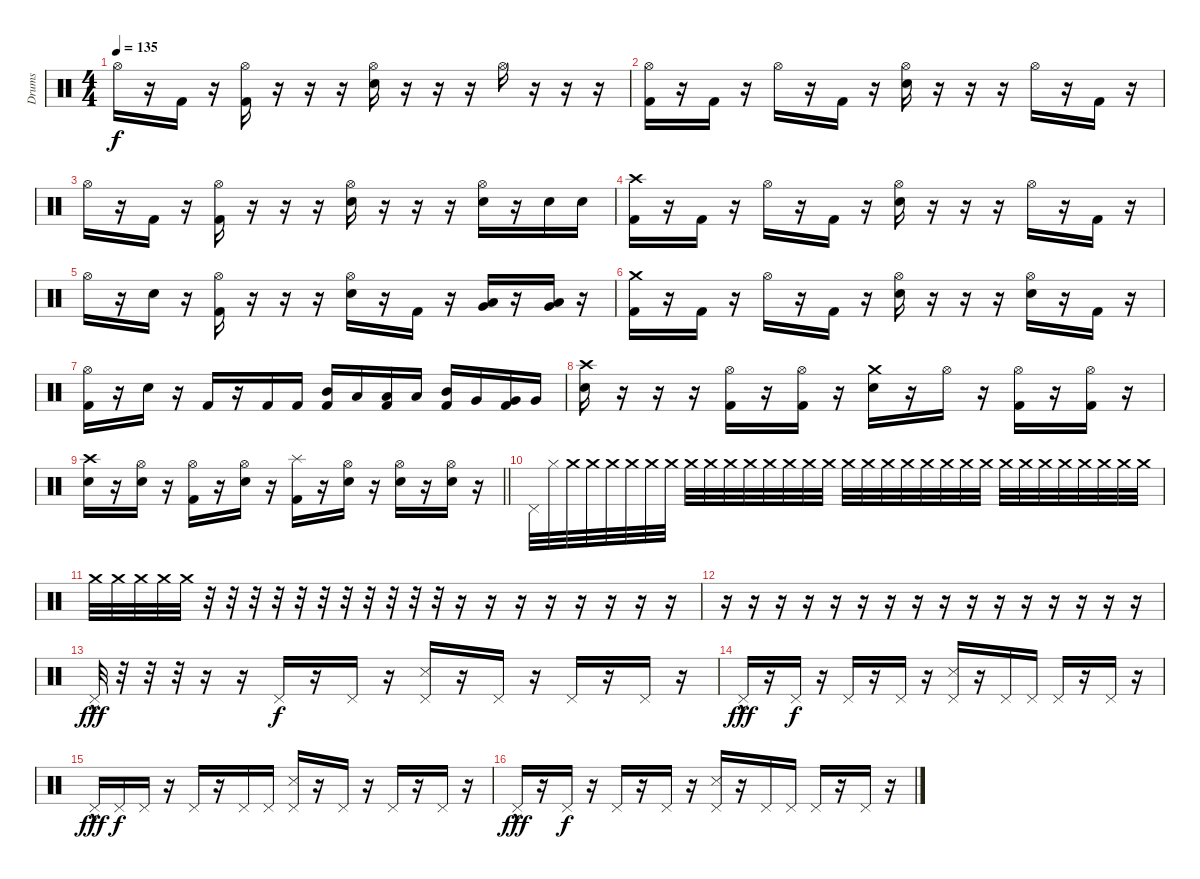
\track ("Drums" "Drums") {instrument percussion}
\staff {score}
\articulation defaults
\ts (4 4)
\tempo 135
\clef neutral
\ks c "Hi-Hat (open)".16{dy f}
r.16 "Kick (hit) 2".16 r.16 ("Hi-Hat (open)" "Kick (hit) 2").16 r.16 r.16 r.16 ("Hi-Hat (open)" "Snare (hit) 2").16 r.16 r.16 r.16 "Hi-Hat (open)".16 r.16 r.16 r.16 |
("Hi-Hat (open)" "Kick (hit) 2").16 r.16 "Kick (hit) 2".16 r.16 "Hi-Hat (open)".16 r.16 "Kick (hit) 2".16 r.16 ("Hi-Hat (open)" "Snare (hit) 2").16 r.16 r.16 r.16 "Hi-Hat (open)".16 r.16 "Kick (hit) 2".16 r.16 |
"Hi-Hat (open)".16 r.16 "Kick (hit) 2".16 r.16 ("Hi-Hat (open)" "Kick (hit) 2").16 r.16 r.16 r.16 ("Hi-Hat (open)" "Snare (hit) 2").16 r.16 r.16 r.16 ("Hi-Hat (open)" "Snare (hit) 2").16 r.16 "Snare (hit) 2".16 "Snare (hit) 2".16 |
("Crash high (hit)" "Kick (hit) 2").16 r.16 "Kick (hit) 2".16 r.16 "Hi-Hat (open)".16 r.16 "Kick (hit) 2".16 r.16 ("Hi-Hat (open)" "Snare (hit) 2").16 r.16 r.16 r.16 "Hi-Hat (open)".16 r.16 "Kick (hit) 2".16 r.16 |
"Hi-Hat (open)".16 r.16 "Snare (hit) 2".16 r.16 ("Hi-Hat (open)" "Kick (hit) 2").16 r.16 r.16 r.16 ("Hi-Hat (open)" "Snare (hit) 2").16 r.16 "Kick (hit) 2".16 r.16 ("Low Tom (hit)" "Very Low Tom (hit)").16 r.16 ("Low Tom (hit)" "Very Low Tom (hit)").16 r.16 |
("Crash medium (hit)" "Kick (hit) 2").16 r.16 "Kick (hit) 2".16 r.16 "Hi-Hat (open)".16 r.16 "Kick (hit) 2".16 r.16 ("Hi-Hat (open)" "Snare (hit) 2").16 r.16 r.16 r.16 ("Hi-Hat (open)" "Snare (hit) 2").16 r.16 "Kick (hit) 2".16 r.16 |
("Hi-Hat (open)" "Kick (hit) 2").16 r.16 "Snare (hit) 2".16 r.16 "Kick (hit) 2".16 r.16 "Kick (hit) 2".16 "Kick (hit) 2".16 ("Mid Tom (hit)" "Kick (hit) 2").16 "Low Tom (hit)".16 ("Low Tom (hit)" "Kick (hit) 2").16 "Low Tom (hit)".16 ("Mid Tom (hit)" "Kick (hit) 2").16 "Very Low Tom (hit)".16 ("Very Low Tom (hit)" "Kick (hit) 2").16 "Very Low Tom (hit)".16 |
("Crash high (hit)" "Snare (hit) 2").16 r.16 r.16 r.16 ("Hi-Hat (open)" "Kick (hit) 2").16 r.16 ("Hi-Hat (open)" "Kick (hit) 2").16 r.16 ("Crash medium (hit)" "Snare (hit) 2").16 r.16 "Hi-Hat (open)".16 r.16 ("Hi-Hat (open)" "Kick (hit) 2").16 r.16 ("Hi-Hat (open)" "Kick (hit) 2").16 r.16 |
\barLineRight lightlight
("Crash high (hit)" "Snare (hit) 2").16 r.16 ("Hi-Hat (open)" "Snare (hit) 2").16 r.16 ("Hi-Hat (open)" "Kick (hit) 2").16 r.16 ("Hi-Hat (open)" "Snare (hit) 2").16 r.16 ("Splash (hit)" "Kick (hit) 2").16 r.16 ("Hi-Hat (open)" "Snare (hit) 2").16 r.16 ("Hi-Hat (open)" "Snare (hit) 2").16 r.16 ("Hi-Hat (open)" "Snare (hit) 2").16 r.16 |
"Pedal Hi-Hat (hit)".32 "Hi-Hat (closed)".32{volume 0} "Crash medium (hit)".32{volume 16} "Crash medium (hit)".32 "Crash medium (hit)".32 "Crash medium (hit)".32 "Crash medium (hit)".32 "Crash medium (hit)".32 "Crash medium (hit)".32 "Crash medium (hit)".32 "Crash medium (hit)".32 "Crash medium (hit)".32 "Crash medium (hit)".32 "Crash medium (hit)".32 "Crash medium (hit)".32 "Crash medium (hit)".32 "Crash medium (hit)".32 "Crash medium (hit)".32 "Crash medium (hit)".32 "Crash medium (hit)".32 "Crash medium (hit)".32 "Crash medium (hit)".32 "Crash medium (hit)".32 "Crash medium (hit)".32 "Crash medium (hit)".32 "Crash medium (hit)".32 "Crash medium (hit)".32 "Crash medium (hit)".32 "Crash medium (hit)".32 "Crash medium (hit)".32 "Crash medium (hit)".32 "Crash medium (hit)".32 |
"Crash medium (hit)".32 "Crash medium (hit)".32 "Crash medium (hit)".32 "Crash medium (hit)".32 "Crash medium (hit)".32 r.32 r.32 r.32 r.32 r.32 r.32 r.32 r.32 r.32 r.32 r.32 r.16 r.16 r.16 r.16 r.16 r.16 r.16 r.16 |
r.16 r.16 r.16 r.16 r.16 r.16 r.16 r.16 r.16 r.16 r.16 r.16 r.16 r.16 r.16 r.16 |
"Pedal Hi-Hat (hit)"{hac}.32{dy fff} r.32 r.32 r.32 r.16 r.16 "Pedal Hi-Hat (hit)".16{dy f} r.16 "Pedal Hi-Hat (hit)".16 r.16 ("Pedal Hi-Hat (hit)" "Snare (side stick) 3").16 r.16 "Pedal Hi-Hat (hit)".16 r.16 "Pedal Hi-Hat (hit)".16 r.16 "Pedal Hi-Hat (hit)".16 r.16 |
"Pedal Hi-Hat (hit)"{hac}.16{dy fff} r.16 "Pedal Hi-Hat (hit)".16{dy f} r.16 "Pedal Hi-Hat (hit)".16 r.16 "Pedal Hi-Hat (hit)".16 r.16 ("Pedal Hi-Hat (hit)" "Snare (side stick) 3").16 r.16 "Pedal Hi-Hat (hit)".16 "Pedal Hi-Hat (hit)".16 "Pedal Hi-Hat (hit)".16 r.16 "Pedal Hi-Hat (hit)".16 r.16 |
"Pedal Hi-Hat (hit)"{hac}.16{dy fff} "Pedal Hi-Hat (hit)".16{dy f} "Pedal Hi-Hat (hit)".16 r.16 "Pedal Hi-Hat (hit)".16 r.16 "Pedal Hi-Hat (hit)".16 "Pedal Hi-Hat (hit)".16 ("Pedal Hi-Hat (hit)" "Snare (side stick) 3").16 r.16 "Pedal Hi-Hat (hit)".16 r.16 "Pedal Hi-Hat (hit)".16 r.16 "Pedal Hi-Hat (hit)".16 r.16 |
"Pedal Hi-Hat (hit)"{hac}.16{dy fff} r.16 "Pedal Hi-Hat (hit)".16{dy f} r.16 "Pedal Hi-Hat (hit)".16 r.16 "Pedal Hi-Hat (hit)".16 r.16 ("Pedal Hi-Hat (hit)" "Snare (side stick) 3").16 r.16 "Pedal Hi-Hat (hit)".16 "Pedal Hi-Hat (hit)".16 "Pedal Hi-Hat (hit)".16 r.16 "Pedal Hi-Hat (hit)".16 r.16
